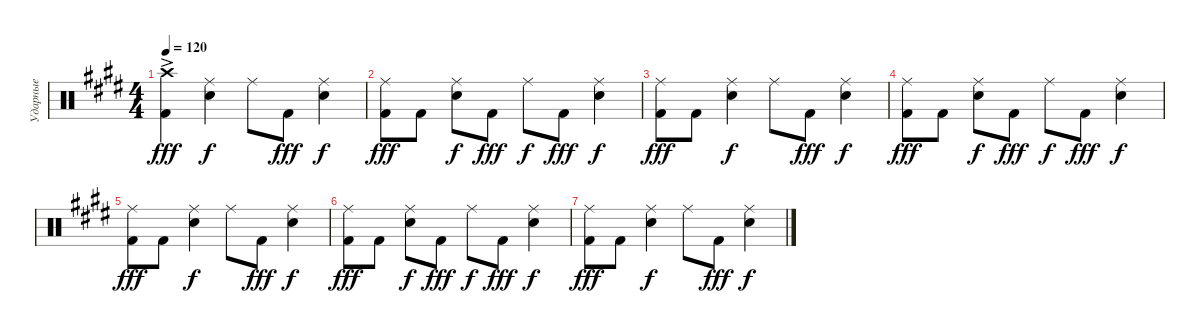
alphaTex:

\track ("Ударные" "Ударные") {instrument percussion}
\staff {score}
\articulation defaults
\ts (4 4)
\tempo 120
\clef neutral
\ks e
("Kick (hit) 2" "Crash high (hit)"{ac}).4{dy fff} ("Snare (hit) 2" "Ride (middle)").4{dy f} "Ride (middle)".8 "Kick (hit) 2".8{dy fff} ("Snare (hit) 2" "Ride (middle)").4{dy f} |
("Kick (hit) 2" "Ride (middle)").8{dy fff} "Kick (hit) 2".8 ("Snare (hit) 2" "Ride (middle)").8{dy f} "Kick (hit) 2".8{dy fff} "Ride (middle)".8{dy f} "Kick (hit) 2".8{dy fff} ("Snare (hit) 2" "Ride (middle)").4{dy f} |
("Kick (hit) 2" "Ride (middle)").8{dy fff} "Kick (hit) 2".8 ("Snare (hit) 2" "Ride (middle)").4{dy f} "Ride (middle)".8 "Kick (hit) 2".8{dy fff} ("Snare (hit) 2" "Ride (middle)").4{dy f} |
("Kick (hit) 2" "Ride (middle)").8{dy fff} "Kick (hit) 2".8 ("Snare (hit) 2" "Ride (middle)").8{dy f} "Kick (hit) 2".8{dy fff} "Ride (middle)".8{dy f} "Kick (hit) 2".8{dy fff} ("Snare (hit) 2" "Ride (middle)").4{dy f} |
("Kick (hit) 2" "Ride (middle)").8{dy fff} "Kick (hit) 2".8 ("Snare (hit) 2" "Ride (middle)").4{dy f} "Ride (middle)".8 "Kick (hit) 2".8{dy fff} ("Snare (hit) 2" "Ride (middle)").4{dy f} |
("Kick (hit) 2" "Ride (middle)").8{dy fff} "Kick (hit) 2".8 ("Snare (hit) 2" "Ride (middle)").8{dy f} "Kick (hit) 2".8{dy fff} "Ride (middle)".8{dy f} "Kick (hit) 2".8{dy fff} ("Snare (hit) 2" "Ride (middle)").4{dy f} |
("Kick (hit) 2" "Ride (middle)").8{dy fff} "Kick (hit) 2".8 ("Snare (hit) 2" "Ride (middle)").4{dy f} "Ride (middle)".8 "Kick (hit) 2".8{dy fff} ("Snare (hit) 2" "Ride (middle)").4{dy f}
